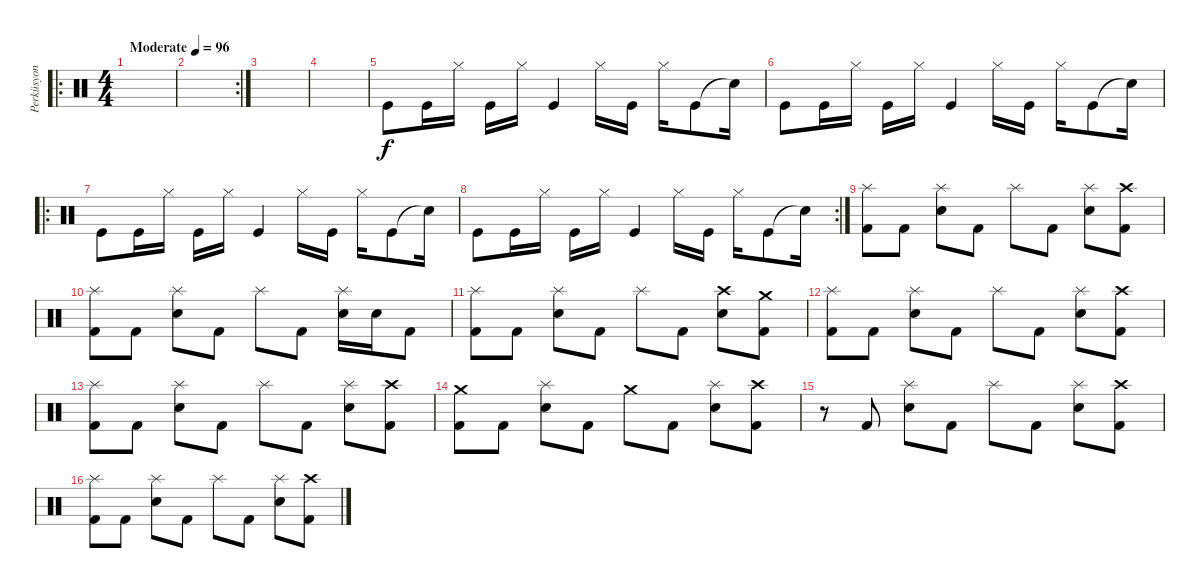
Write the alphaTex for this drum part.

\track ("Perküsyon" "Perküsyon") {instrument percussion}
\staff {score}
\articulation defaults
\ro
\ts (4 4)
\tempo (96 "Moderate")
\clef neutral
\ks c
|
\rc 2
|
|
|
"Kick (hit)".8 "Kick (hit)".16 "Hi-Hat (closed)".16 "Kick (hit)".16 "Hi-Hat (closed)".16 "Kick (hit)".4 "Hi-Hat (closed)".16 "Kick (hit)".16 "Hi-Hat (closed)".16 "Kick (hit)".8 "Snare (hit)"{t}.16 |
"Kick (hit)".8 "Kick (hit)".16 "Hi-Hat (closed)".16 "Kick (hit)".16 "Hi-Hat (closed)".16 "Kick (hit)".4 "Hi-Hat (closed)".16 "Kick (hit)".16 "Hi-Hat (closed)".16 "Kick (hit)".8 "Snare (hit)"{t}.16 |
\ro "Kick (hit)".8 "Kick (hit)".16 "Hi-Hat (closed)".16 "Kick (hit)".16 "Hi-Hat (closed)".16 "Kick (hit)".4 "Hi-Hat (closed)".16 "Kick (hit)".16 "Hi-Hat (closed)".16 "Kick (hit)".8 "Snare (hit)"{t}.16
|
\rc 2 "Kick (hit)".8 "Kick (hit)".16 "Hi-Hat (closed)".16 "Kick (hit)".16 "Hi-Hat (closed)".16 "Kick (hit)".4 "Hi-Hat (closed)".16 "Kick (hit)".16 "Hi-Hat (closed)".16 "Kick (hit)".8 "Snare (hit)"{t}.16
|
("Kick (hit) 2" "Splash (hit)").8 "Kick (hit) 2".8 ("Snare (hit) 2" "Splash (hit)").8 "Kick (hit) 2".8 "Splash (hit)".8 "Kick (hit) 2".8 ("Snare (hit) 2" "Splash (hit)").8 ("Kick (hit) 2" "Crash high (hit)").8 |
("Kick (hit) 2" "Splash (hit)").8 "Kick (hit) 2".8 ("Snare (hit) 2" "Splash (hit)").8 "Kick (hit) 2".8 "Splash (hit)".8 "Kick (hit) 2".8 ("Snare (hit) 2" "Splash (hit)").16 "Snare (hit) 2".16 "Kick (hit) 2".8 |
("Kick (hit) 2" "Splash (hit)").8 "Kick (hit) 2".8 ("Snare (hit) 2" "Splash (hit)").8 "Kick (hit) 2".8 "Splash (hit)".8 "Kick (hit) 2".8 ("Snare (hit) 2" "Crash high (hit)").8 ("Kick (hit) 2" "Crash medium (hit)").8 |
("Kick (hit) 2" "Splash (hit)").8 "Kick (hit) 2".8 ("Snare (hit) 2" "Splash (hit)").8 "Kick (hit) 2".8 "Splash (hit)".8 "Kick (hit) 2".8 ("Snare (hit) 2" "Splash (hit)").8 ("Kick (hit) 2" "Crash high (hit)").8 |
("Kick (hit) 2" "Splash (hit)").8 "Kick (hit) 2".8 ("Snare (hit) 2" "Splash (hit)").8 "Kick (hit) 2".8 "Splash (hit)".8 "Kick (hit) 2".8 ("Snare (hit) 2" "Splash (hit)").8 ("Kick (hit) 2" "Crash high (hit)").8 |
("Kick (hit) 2" "Crash medium (hit)").8 "Kick (hit) 2".8 ("Snare (hit) 2" "Splash (hit)").8 "Kick (hit) 2".8 "Crash medium (hit)".8 "Kick (hit) 2".8 ("Snare (hit) 2" "Splash (hit)").8 ("Kick (hit) 2" "Crash high (hit)").8 |
r.8 "Kick (hit) 2".8 ("Snare (hit) 2" "Splash (hit)").8 "Kick (hit) 2".8 "Splash (hit)".8 "Kick (hit) 2".8 ("Snare (hit) 2" "Splash (hit)").8 ("Kick (hit) 2" "Crash high (hit)").8 |
("Kick (hit) 2" "Splash (hit)").8 "Kick (hit) 2".8 ("Snare (hit) 2" "Splash (hit)").8 "Kick (hit) 2".8 "Splash (hit)".8 "Kick (hit) 2".8 ("Snare (hit) 2" "Splash (hit)").8 ("Kick (hit) 2" "Crash high (hit)").8
